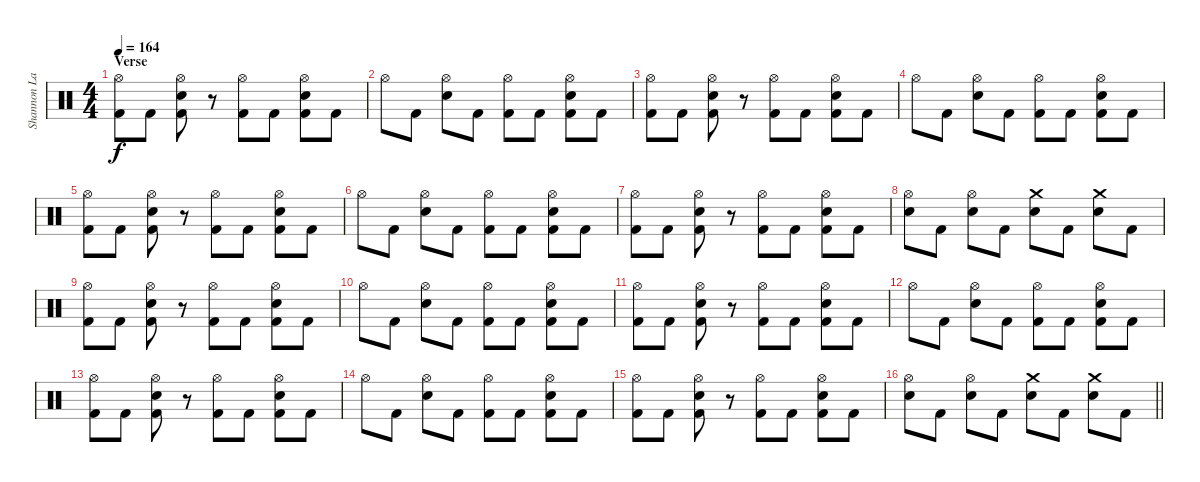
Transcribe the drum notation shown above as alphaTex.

\track ("Shannon Larkin" "Shannon La") {instrument percussion}
\staff {score}
\articulation defaults
\ts (4 4)
\section ("" "Verse")
\tempo 164
\clef neutral
\ks c
("Hi-Hat (open)" "Kick (hit) 2").8{dy f} "Kick (hit) 2".8 ("Hi-Hat (open)" "Electric Snare (hit)" "Kick (hit) 2").8 r.8 ("Hi-Hat (open)" "Kick (hit) 2").8 "Kick (hit) 2".8 ("Hi-Hat (open)" "Electric Snare (hit)" "Kick (hit) 2").8 "Kick (hit) 2".8 |
"Hi-Hat (open)".8 "Kick (hit) 2".8 ("Hi-Hat (open)" "Electric Snare (hit)").8 "Kick (hit) 2".8 ("Hi-Hat (open)" "Kick (hit) 2").8 "Kick (hit) 2".8 ("Hi-Hat (open)" "Electric Snare (hit)" "Kick (hit) 2").8 "Kick (hit) 2".8 |
("Hi-Hat (open)" "Kick (hit) 2").8 "Kick (hit) 2".8 ("Hi-Hat (open)" "Electric Snare (hit)" "Kick (hit) 2").8 r.8 ("Hi-Hat (open)" "Kick (hit) 2").8 "Kick (hit) 2".8 ("Hi-Hat (open)" "Electric Snare (hit)" "Kick (hit) 2").8 "Kick (hit) 2".8 |
"Hi-Hat (open)".8 "Kick (hit) 2".8 ("Hi-Hat (open)" "Electric Snare (hit)").8 "Kick (hit) 2".8 ("Hi-Hat (open)" "Kick (hit) 2").8 "Kick (hit) 2".8 ("Hi-Hat (open)" "Electric Snare (hit)" "Kick (hit) 2").8 "Kick (hit) 2".8 |
("Hi-Hat (open)" "Kick (hit) 2").8 "Kick (hit) 2".8 ("Hi-Hat (open)" "Electric Snare (hit)" "Kick (hit) 2").8 r.8 ("Hi-Hat (open)" "Kick (hit) 2").8 "Kick (hit) 2".8 ("Hi-Hat (open)" "Electric Snare (hit)" "Kick (hit) 2").8 "Kick (hit) 2".8 |
"Hi-Hat (open)".8 "Kick (hit) 2".8 ("Hi-Hat (open)" "Electric Snare (hit)").8 "Kick (hit) 2".8 ("Hi-Hat (open)" "Kick (hit) 2").8 "Kick (hit) 2".8 ("Hi-Hat (open)" "Electric Snare (hit)" "Kick (hit) 2").8 "Kick (hit) 2".8 |
("Hi-Hat (open)" "Kick (hit) 2").8 "Kick (hit) 2".8 ("Hi-Hat (open)" "Electric Snare (hit)" "Kick (hit) 2").8 r.8 ("Hi-Hat (open)" "Kick (hit) 2").8 "Kick (hit) 2".8 ("Hi-Hat (open)" "Electric Snare (hit)" "Kick (hit) 2").8 "Kick (hit) 2".8 |
("Hi-Hat (open)" "Electric Snare (hit)").8 "Kick (hit) 2".8 ("Hi-Hat (open)" "Electric Snare (hit)").8 "Kick (hit) 2".8 ("Crash medium (hit)" "Electric Snare (hit)").8 "Kick (hit) 2".8 ("Crash medium (hit)" "Electric Snare (hit)").8 "Kick (hit) 2".8 |
("Hi-Hat (open)" "Kick (hit) 2").8 "Kick (hit) 2".8 ("Hi-Hat (open)" "Electric Snare (hit)" "Kick (hit) 2").8 r.8 ("Hi-Hat (open)" "Kick (hit) 2").8 "Kick (hit) 2".8 ("Hi-Hat (open)" "Electric Snare (hit)" "Kick (hit) 2").8 "Kick (hit) 2".8 |
"Hi-Hat (open)".8 "Kick (hit) 2".8 ("Hi-Hat (open)" "Electric Snare (hit)").8 "Kick (hit) 2".8 ("Hi-Hat (open)" "Kick (hit) 2").8 "Kick (hit) 2".8 ("Hi-Hat (open)" "Electric Snare (hit)" "Kick (hit) 2").8 "Kick (hit) 2".8 |
("Hi-Hat (open)" "Kick (hit) 2").8 "Kick (hit) 2".8 ("Hi-Hat (open)" "Electric Snare (hit)" "Kick (hit) 2").8 r.8 ("Hi-Hat (open)" "Kick (hit) 2").8 "Kick (hit) 2".8 ("Hi-Hat (open)" "Electric Snare (hit)" "Kick (hit) 2").8 "Kick (hit) 2".8 |
"Hi-Hat (open)".8 "Kick (hit) 2".8 ("Hi-Hat (open)" "Electric Snare (hit)").8 "Kick (hit) 2".8 ("Hi-Hat (open)" "Kick (hit) 2").8 "Kick (hit) 2".8 ("Hi-Hat (open)" "Electric Snare (hit)" "Kick (hit) 2").8 "Kick (hit) 2".8 |
("Hi-Hat (open)" "Kick (hit) 2").8 "Kick (hit) 2".8 ("Hi-Hat (open)" "Electric Snare (hit)" "Kick (hit) 2").8 r.8 ("Hi-Hat (open)" "Kick (hit) 2").8 "Kick (hit) 2".8 ("Hi-Hat (open)" "Electric Snare (hit)" "Kick (hit) 2").8 "Kick (hit) 2".8 |
"Hi-Hat (open)".8 "Kick (hit) 2".8 ("Hi-Hat (open)" "Electric Snare (hit)").8 "Kick (hit) 2".8 ("Hi-Hat (open)" "Kick (hit) 2").8 "Kick (hit) 2".8 ("Hi-Hat (open)" "Electric Snare (hit)" "Kick (hit) 2").8 "Kick (hit) 2".8 |
("Hi-Hat (open)" "Kick (hit) 2").8 "Kick (hit) 2".8 ("Hi-Hat (open)" "Electric Snare (hit)" "Kick (hit) 2").8 r.8 ("Hi-Hat (open)" "Kick (hit) 2").8 "Kick (hit) 2".8 ("Hi-Hat (open)" "Electric Snare (hit)" "Kick (hit) 2").8 "Kick (hit) 2".8 |
\barLineRight lightlight
("Hi-Hat (open)" "Electric Snare (hit)").8 "Kick (hit) 2".8 ("Hi-Hat (open)" "Electric Snare (hit)").8 "Kick (hit) 2".8 ("Crash medium (hit)" "Electric Snare (hit)").8 "Kick (hit) 2".8 ("Crash medium (hit)" "Electric Snare (hit)").8 "Kick (hit) 2".8
